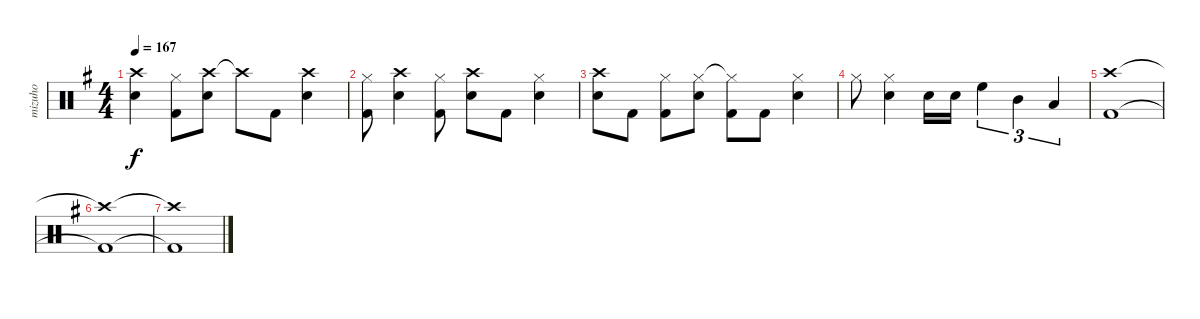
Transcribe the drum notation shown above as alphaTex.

\track ("mizuho" "mizuho") {instrument percussion}
\staff {score}
\articulation defaults
\ts (4 4)
\tempo 167
\clef neutral
\ks eminor
("Crash high (hit)" "Electric Snare (hit)").4{dy f} ("Hi-Hat (closed)" "Kick (hit) 2").8 ("Crash high (hit)" "Electric Snare (hit)").8 "Crash high (hit)"{t}.8 "Kick (hit) 2".8 ("Crash high (hit)" "Electric Snare (hit)").4 |
("Hi-Hat (closed)" "Kick (hit) 2").8 ("Crash high (hit)" "Electric Snare (hit)").4 ("Hi-Hat (closed)" "Kick (hit) 2").8 ("Crash high (hit)" "Electric Snare (hit)").8 "Kick (hit) 2".8 ("Hi-Hat (closed)" "Electric Snare (hit)").4 |
("Crash high (hit)" "Electric Snare (hit)").8 "Kick (hit) 2".8 ("Hi-Hat (closed)" "Kick (hit) 2").8 ("Hi-Hat (closed)" "Electric Snare (hit)").8 ("Hi-Hat (closed)"{t} "Kick (hit) 2").8 "Kick (hit) 2".8 ("Hi-Hat (closed)" "Electric Snare (hit)").4 |
"Hi-Hat (closed)".8 ("Hi-Hat (closed)" "Electric Snare (hit)").4 "Snare (hit) 2".16 "Snare (hit) 2".16 "High Floor Tom (hit)".4{tu (3 2)} "Mid Tom (hit)".4{tu (3 2)} "Low Tom (hit)".4{tu (3 2)} |
("Crash high (hit)" "Kick (hit) 2").1 |
("Crash high (hit)"{t} "Kick (hit) 2"{t}).1 |
("Crash high (hit)"{t} "Kick (hit) 2"{t}).1
